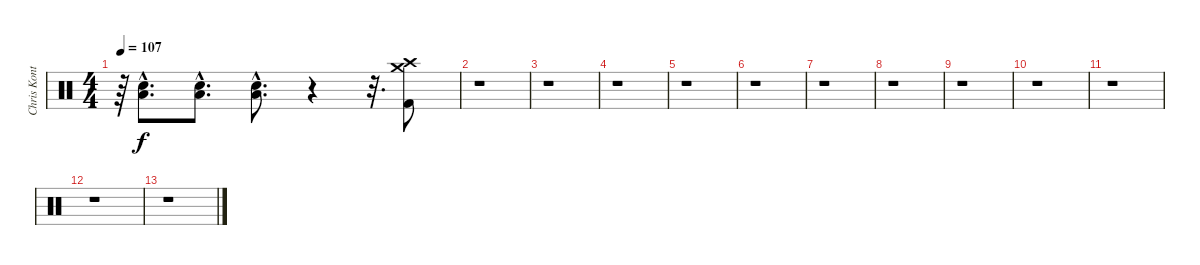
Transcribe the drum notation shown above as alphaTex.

\track ("Chris Kontos" "Chris Kont") {instrument percussion}
\staff {score}
\articulation defaults
\ts (4 4)
\tempo 107
\clef neutral
\ks c
r.64{dy f} ("Low Floor Tom (hit)"{hac} "Electric Snare (hit)"{hac}).8{d} ("Low Floor Tom (hit)"{hac} "Electric Snare (hit)"{hac}).8{d} ("Low Floor Tom (hit)"{hac} "Electric Snare (hit)"{hac}).8{d} r.4 r.32{d} ("Crash high (hit)" "Crash medium (hit)" "Kick (hit) 2").8 |
r.1 |
r.1 |
r.1 |
r.1 |
r.1 |
r.1 |
r.1 |
r.1 |
r.1 |
r.1 |
r.1 |
r.1
